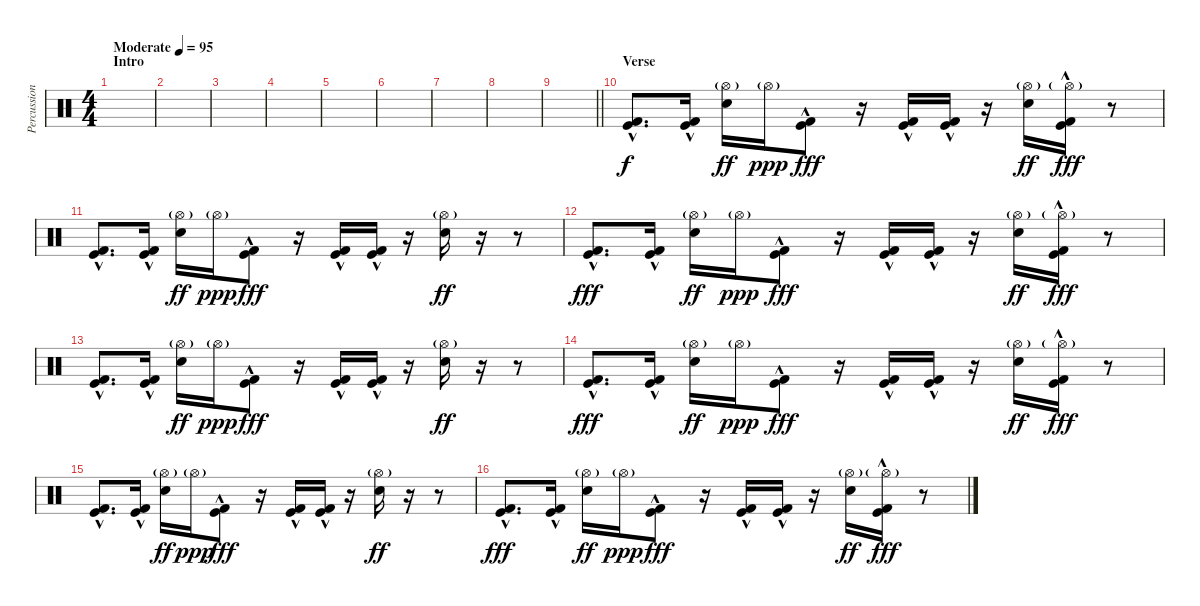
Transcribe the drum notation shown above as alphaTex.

\track ("Percussion" "Percussion") {instrument percussion}
\staff {score}
\articulation defaults
\ts (4 4)
\section ("" "Intro")
\tempo (95 "Moderate")
\clef neutral
\ks c
|
|
|
|
|
|
|
|
\barLineRight lightlight
|
\section ("" "Verse")
("Kick (hit) 2"{hac} "Kick (hit)"{hac}).8{d} ("Kick (hit) 2"{hac} "Kick (hit)"{hac}).16 ("Hi-Hat (open)"{g} "Electric Snare (hit)").16{dy ff} "Hi-Hat (open)"{g}.16{dy ppp} ("Kick (hit) 2"{hac} "Kick (hit)"{hac}).8{dy fff} r.16 ("Kick (hit) 2"{hac} "Kick (hit)"{hac}).16 ("Kick (hit) 2"{hac} "Kick (hit)"{hac}).16 r.16 ("Hi-Hat (open)"{g} "Electric Snare (hit)").16{dy ff} ("Hi-Hat (open)"{g} "Kick (hit) 2"{hac} "Kick (hit)"{hac}).16{dy fff} r.8 |
("Kick (hit) 2"{hac} "Kick (hit)"{hac}).8{d} ("Kick (hit) 2"{hac} "Kick (hit)"{hac}).16 ("Hi-Hat (open)"{g} "Electric Snare (hit)").16{dy ff} "Hi-Hat (open)"{g}.16{dy ppp} ("Kick (hit) 2"{hac} "Kick (hit)"{hac}).8{dy fff} r.16 ("Kick (hit) 2"{hac} "Kick (hit)"{hac}).16 ("Kick (hit) 2"{hac} "Kick (hit)"{hac}).16 r.16 ("Hi-Hat (open)"{g} "Electric Snare (hit)").16{dy ff} r.16 r.8 |
("Kick (hit) 2"{hac} "Kick (hit)"{hac}).8{d dy fff} ("Kick (hit) 2"{hac} "Kick (hit)"{hac}).16 ("Hi-Hat (open)"{g} "Electric Snare (hit)").16{dy ff} "Hi-Hat (open)"{g}.16{dy ppp} ("Kick (hit) 2"{hac} "Kick (hit)"{hac}).8{dy fff} r.16 ("Kick (hit) 2"{hac} "Kick (hit)"{hac}).16 ("Kick (hit) 2"{hac} "Kick (hit)"{hac}).16 r.16 ("Hi-Hat (open)"{g} "Electric Snare (hit)").16{dy ff} ("Hi-Hat (open)"{g} "Kick (hit) 2"{hac} "Kick (hit)"{hac}).16{dy fff} r.8 |
("Kick (hit) 2"{hac} "Kick (hit)"{hac}).8{d} ("Kick (hit) 2"{hac} "Kick (hit)"{hac}).16 ("Hi-Hat (open)"{g} "Electric Snare (hit)").16{dy ff} "Hi-Hat (open)"{g}.16{dy ppp} ("Kick (hit) 2"{hac} "Kick (hit)"{hac}).8{dy fff} r.16 ("Kick (hit) 2"{hac} "Kick (hit)"{hac}).16 ("Kick (hit) 2"{hac} "Kick (hit)"{hac}).16 r.16 ("Hi-Hat (open)"{g} "Electric Snare (hit)").16{dy ff} r.16 r.8 |
("Kick (hit) 2"{hac} "Kick (hit)"{hac}).8{d dy fff} ("Kick (hit) 2"{hac} "Kick (hit)"{hac}).16 ("Hi-Hat (open)"{g} "Electric Snare (hit)").16{dy ff} "Hi-Hat (open)"{g}.16{dy ppp} ("Kick (hit) 2"{hac} "Kick (hit)"{hac}).8{dy fff} r.16 ("Kick (hit) 2"{hac} "Kick (hit)"{hac}).16 ("Kick (hit) 2"{hac} "Kick (hit)"{hac}).16 r.16 ("Hi-Hat (open)"{g} "Electric Snare (hit)").16{dy ff} ("Hi-Hat (open)"{g} "Kick (hit) 2"{hac} "Kick (hit)"{hac}).16{dy fff} r.8 |
("Kick (hit) 2"{hac} "Kick (hit)"{hac}).8{d} ("Kick (hit) 2"{hac} "Kick (hit)"{hac}).16 ("Hi-Hat (open)"{g} "Electric Snare (hit)").16{dy ff} "Hi-Hat (open)"{g}.16{dy ppp} ("Kick (hit) 2"{hac} "Kick (hit)"{hac}).8{dy fff} r.16 ("Kick (hit) 2"{hac} "Kick (hit)"{hac}).16 ("Kick (hit) 2"{hac} "Kick (hit)"{hac}).16 r.16 ("Hi-Hat (open)"{g} "Electric Snare (hit)").16{dy ff} r.16 r.8 |
("Kick (hit) 2"{hac} "Kick (hit)"{hac}).8{d dy fff} ("Kick (hit) 2"{hac} "Kick (hit)"{hac}).16 ("Hi-Hat (open)"{g} "Electric Snare (hit)").16{dy ff} "Hi-Hat (open)"{g}.16{dy ppp} ("Kick (hit) 2"{hac} "Kick (hit)"{hac}).8{dy fff} r.16 ("Kick (hit) 2"{hac} "Kick (hit)"{hac}).16 ("Kick (hit) 2"{hac} "Kick (hit)"{hac}).16 r.16 ("Hi-Hat (open)"{g} "Electric Snare (hit)").16{dy ff} ("Hi-Hat (open)"{g} "Kick (hit) 2"{hac} "Kick (hit)"{hac}).16{dy fff} r.8
